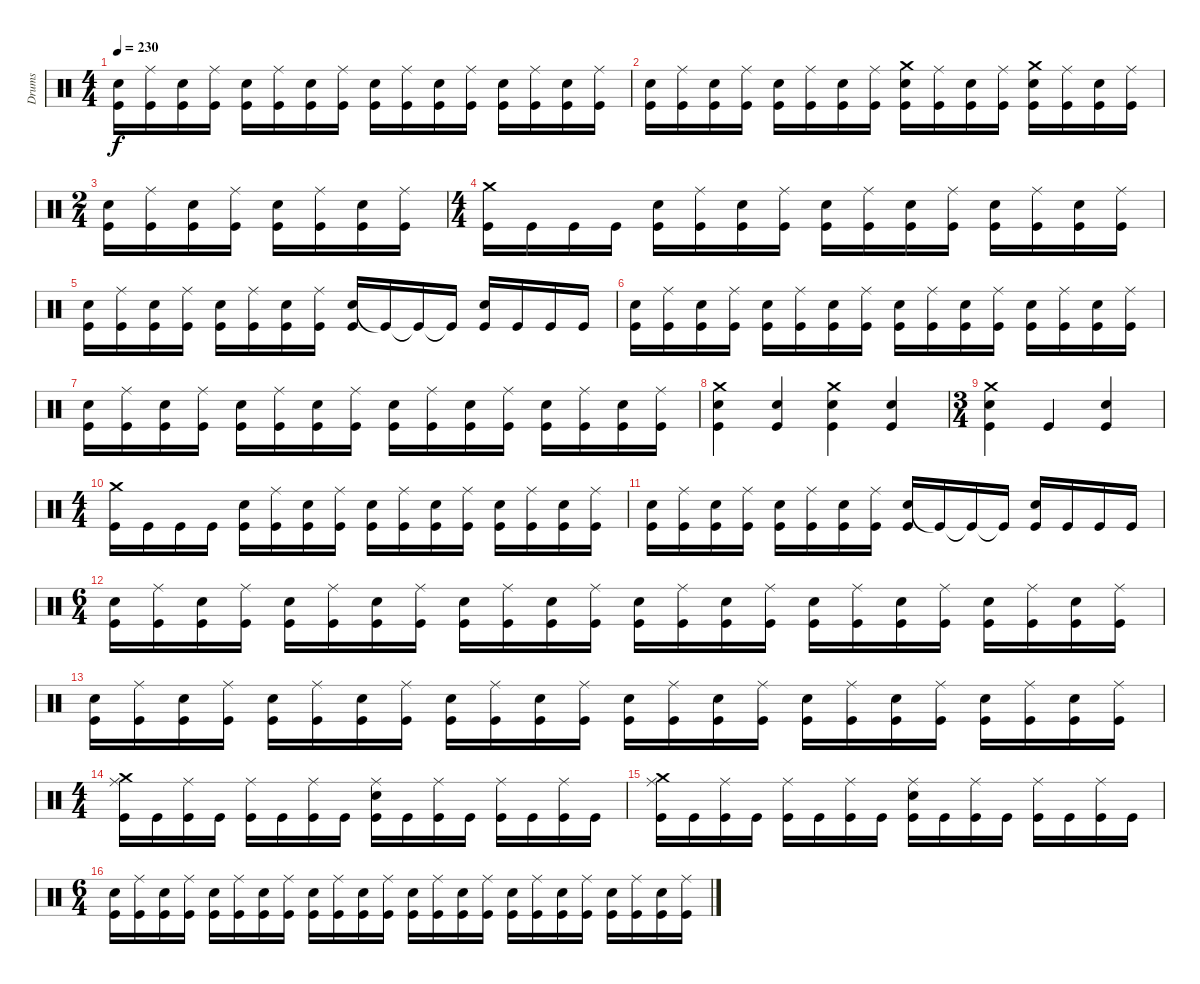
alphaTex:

\track ("Drums" "Drums") {instrument percussion}
\staff {score}
\articulation defaults
\ts (4 4)
\tempo 230
\clef neutral
\ks c
("Electric Snare (hit)" "Kick (hit)").16{dy f} ("Ride (middle)" "Kick (hit)").16 ("Electric Snare (hit)" "Kick (hit)").16 ("Ride (middle)" "Kick (hit)").16 ("Electric Snare (hit)" "Kick (hit)").16 ("Ride (middle)" "Kick (hit)").16 ("Electric Snare (hit)" "Kick (hit)").16 ("Ride (middle)" "Kick (hit)").16 ("Electric Snare (hit)" "Kick (hit)").16 ("Ride (middle)" "Kick (hit)").16 ("Electric Snare (hit)" "Kick (hit)").16 ("Ride (middle)" "Kick (hit)").16 ("Electric Snare (hit)" "Kick (hit)").16 ("Ride (middle)" "Kick (hit)").16 ("Electric Snare (hit)" "Kick (hit)").16 ("Ride (middle)" "Kick (hit)").16 |
("Electric Snare (hit)" "Kick (hit)").16 ("Ride (middle)" "Kick (hit)").16 ("Electric Snare (hit)" "Kick (hit)").16 ("Ride (middle)" "Kick (hit)").16 ("Electric Snare (hit)" "Kick (hit)").16 ("Ride (middle)" "Kick (hit)").16 ("Electric Snare (hit)" "Kick (hit)").16 ("Ride (middle)" "Kick (hit)").16 ("Crash medium (hit)" "Electric Snare (hit)" "Kick (hit)").16 ("Ride (middle)" "Kick (hit)").16 ("Electric Snare (hit)" "Kick (hit)").16 ("Ride (middle)" "Kick (hit)").16 ("Crash medium (hit)" "Electric Snare (hit)" "Kick (hit)").16 ("Ride (middle)" "Kick (hit)").16 ("Electric Snare (hit)" "Kick (hit)").16 ("Ride (middle)" "Kick (hit)").16 |
\ts (2 4)
("Electric Snare (hit)" "Kick (hit)").16 ("Ride (middle)" "Kick (hit)").16 ("Electric Snare (hit)" "Kick (hit)").16 ("Ride (middle)" "Kick (hit)").16 ("Electric Snare (hit)" "Kick (hit)").16 ("Ride (middle)" "Kick (hit)").16 ("Electric Snare (hit)" "Kick (hit)").16 ("Ride (middle)" "Kick (hit)").16 |
\ts (4 4)
("Crash medium (hit)" "Kick (hit)").16 "Kick (hit)".16 "Kick (hit)".16 "Kick (hit)".16 ("Electric Snare (hit)" "Kick (hit)").16 ("Ride (middle)" "Kick (hit)").16 ("Electric Snare (hit)" "Kick (hit)").16 ("Ride (middle)" "Kick (hit)").16 ("Electric Snare (hit)" "Kick (hit)").16 ("Ride (middle)" "Kick (hit)").16 ("Electric Snare (hit)" "Kick (hit)").16 ("Ride (middle)" "Kick (hit)").16 ("Electric Snare (hit)" "Kick (hit)").16 ("Ride (middle)" "Kick (hit)").16 ("Electric Snare (hit)" "Kick (hit)").16 ("Ride (middle)" "Kick (hit)").16 |
("Electric Snare (hit)" "Kick (hit)").16 ("Ride (middle)" "Kick (hit)").16 ("Electric Snare (hit)" "Kick (hit)").16 ("Ride (middle)" "Kick (hit)").16 ("Electric Snare (hit)" "Kick (hit)").16 ("Ride (middle)" "Kick (hit)").16 ("Electric Snare (hit)" "Kick (hit)").16 ("Ride (middle)" "Kick (hit)").16 ("Electric Snare (hit)" "Kick (hit)").16 "Kick (hit)"{t}.16 "Kick (hit)"{t}.16 "Kick (hit)"{t}.16 ("Electric Snare (hit)" "Kick (hit)").16 "Kick (hit)".16 "Kick (hit)".16 "Kick (hit)".16 |
("Electric Snare (hit)" "Kick (hit)").16 ("Ride (middle)" "Kick (hit)").16 ("Electric Snare (hit)" "Kick (hit)").16 ("Ride (middle)" "Kick (hit)").16 ("Electric Snare (hit)" "Kick (hit)").16 ("Ride (middle)" "Kick (hit)").16 ("Electric Snare (hit)" "Kick (hit)").16 ("Ride (middle)" "Kick (hit)").16 ("Electric Snare (hit)" "Kick (hit)").16 ("Ride (middle)" "Kick (hit)").16 ("Electric Snare (hit)" "Kick (hit)").16 ("Ride (middle)" "Kick (hit)").16 ("Electric Snare (hit)" "Kick (hit)").16 ("Ride (middle)" "Kick (hit)").16 ("Electric Snare (hit)" "Kick (hit)").16 ("Ride (middle)" "Kick (hit)").16 |
("Electric Snare (hit)" "Kick (hit)").16 ("Ride (middle)" "Kick (hit)").16 ("Electric Snare (hit)" "Kick (hit)").16 ("Ride (middle)" "Kick (hit)").16 ("Electric Snare (hit)" "Kick (hit)").16 ("Ride (middle)" "Kick (hit)").16 ("Electric Snare (hit)" "Kick (hit)").16 ("Ride (middle)" "Kick (hit)").16 ("Electric Snare (hit)" "Kick (hit)").16 ("Ride (middle)" "Kick (hit)").16 ("Electric Snare (hit)" "Kick (hit)").16 ("Ride (middle)" "Kick (hit)").16 ("Electric Snare (hit)" "Kick (hit)").16 ("Ride (middle)" "Kick (hit)").16 ("Electric Snare (hit)" "Kick (hit)").16 ("Ride (middle)" "Kick (hit)").16 |
("Crash medium (hit)" "Electric Snare (hit)" "Kick (hit)").4 ("Electric Snare (hit)" "Kick (hit)").4 ("Crash medium (hit)" "Electric Snare (hit)" "Kick (hit)").4 ("Electric Snare (hit)" "Kick (hit)").4 |
\ts (3 4)
("Crash medium (hit)" "Electric Snare (hit)" "Kick (hit)").4 "Kick (hit)".4 ("Electric Snare (hit)" "Kick (hit)").4 |
\ts (4 4)
("Crash medium (hit)" "Kick (hit)").16 "Kick (hit)".16 "Kick (hit)".16 "Kick (hit)".16 ("Electric Snare (hit)" "Kick (hit)").16 ("Ride (middle)" "Kick (hit)").16 ("Electric Snare (hit)" "Kick (hit)").16 ("Ride (middle)" "Kick (hit)").16 ("Electric Snare (hit)" "Kick (hit)").16 ("Ride (middle)" "Kick (hit)").16 ("Electric Snare (hit)" "Kick (hit)").16 ("Ride (middle)" "Kick (hit)").16 ("Electric Snare (hit)" "Kick (hit)").16 ("Ride (middle)" "Kick (hit)").16 ("Electric Snare (hit)" "Kick (hit)").16 ("Ride (middle)" "Kick (hit)").16 |
("Electric Snare (hit)" "Kick (hit)").16 ("Ride (middle)" "Kick (hit)").16 ("Electric Snare (hit)" "Kick (hit)").16 ("Ride (middle)" "Kick (hit)").16 ("Electric Snare (hit)" "Kick (hit)").16 ("Ride (middle)" "Kick (hit)").16 ("Electric Snare (hit)" "Kick (hit)").16 ("Ride (middle)" "Kick (hit)").16 ("Electric Snare (hit)" "Kick (hit)").16 "Kick (hit)"{t}.16 "Kick (hit)"{t}.16 "Kick (hit)"{t}.16 ("Electric Snare (hit)" "Kick (hit)").16 "Kick (hit)".16 "Kick (hit)".16 "Kick (hit)".16 |
\ts (6 4)
("Electric Snare (hit)" "Kick (hit)").16 ("Ride (middle)" "Kick (hit)").16 ("Electric Snare (hit)" "Kick (hit)").16 ("Ride (middle)" "Kick (hit)").16 ("Electric Snare (hit)" "Kick (hit)").16 ("Ride (middle)" "Kick (hit)").16 ("Electric Snare (hit)" "Kick (hit)").16 ("Ride (middle)" "Kick (hit)").16 ("Electric Snare (hit)" "Kick (hit)").16 ("Ride (middle)" "Kick (hit)").16 ("Electric Snare (hit)" "Kick (hit)").16 ("Ride (middle)" "Kick (hit)").16 ("Electric Snare (hit)" "Kick (hit)").16 ("Ride (middle)" "Kick (hit)").16 ("Electric Snare (hit)" "Kick (hit)").16 ("Ride (middle)" "Kick (hit)").16 ("Electric Snare (hit)" "Kick (hit)").16 ("Ride (middle)" "Kick (hit)").16 ("Electric Snare (hit)" "Kick (hit)").16 ("Ride (middle)" "Kick (hit)").16 ("Electric Snare (hit)" "Kick (hit)").16 ("Ride (middle)" "Kick (hit)").16 ("Electric Snare (hit)" "Kick (hit)").16 ("Ride (middle)" "Kick (hit)").16 |
("Electric Snare (hit)" "Kick (hit)").16 ("Ride (middle)" "Kick (hit)").16 ("Electric Snare (hit)" "Kick (hit)").16 ("Ride (middle)" "Kick (hit)").16 ("Electric Snare (hit)" "Kick (hit)").16 ("Ride (middle)" "Kick (hit)").16 ("Electric Snare (hit)" "Kick (hit)").16 ("Ride (middle)" "Kick (hit)").16 ("Electric Snare (hit)" "Kick (hit)").16 ("Ride (middle)" "Kick (hit)").16 ("Electric Snare (hit)" "Kick (hit)").16 ("Ride (middle)" "Kick (hit)").16 ("Electric Snare (hit)" "Kick (hit)").16 ("Ride (middle)" "Kick (hit)").16 ("Electric Snare (hit)" "Kick (hit)").16 ("Ride (middle)" "Kick (hit)").16 ("Electric Snare (hit)" "Kick (hit)").16 ("Ride (middle)" "Kick (hit)").16 ("Electric Snare (hit)" "Kick (hit)").16 ("Ride (middle)" "Kick (hit)").16 ("Electric Snare (hit)" "Kick (hit)").16 ("Ride (middle)" "Kick (hit)").16 ("Electric Snare (hit)" "Kick (hit)").16 ("Ride (middle)" "Kick (hit)").16 |
\ts (4 4)
("Ride (middle)" "Crash medium (hit)" "Kick (hit)").16 "Kick (hit)".16 ("Ride (middle)" "Kick (hit)").16 "Kick (hit)".16 ("Ride (middle)" "Kick (hit)").16 "Kick (hit)".16 ("Ride (middle)" "Kick (hit)").16 "Kick (hit)".16 ("Ride (middle)" "Electric Snare (hit)" "Kick (hit)").16 "Kick (hit)".16 ("Ride (middle)" "Kick (hit)").16 "Kick (hit)".16 ("Ride (middle)" "Kick (hit)").16 "Kick (hit)".16 ("Ride (middle)" "Kick (hit)").16 "Kick (hit)".16 |
("Ride (middle)" "Crash medium (hit)" "Kick (hit)").16 "Kick (hit)".16 ("Ride (middle)" "Kick (hit)").16 "Kick (hit)".16 ("Ride (middle)" "Kick (hit)").16 "Kick (hit)".16 ("Ride (middle)" "Kick (hit)").16 "Kick (hit)".16 ("Ride (middle)" "Electric Snare (hit)" "Kick (hit)").16 "Kick (hit)".16 ("Ride (middle)" "Kick (hit)").16 "Kick (hit)".16 ("Ride (middle)" "Kick (hit)").16 "Kick (hit)".16 ("Ride (middle)" "Kick (hit)").16 "Kick (hit)".16 |
\ts (6 4)
("Electric Snare (hit)" "Kick (hit)").16 ("Ride (middle)" "Kick (hit)").16 ("Electric Snare (hit)" "Kick (hit)").16 ("Ride (middle)" "Kick (hit)").16 ("Electric Snare (hit)" "Kick (hit)").16 ("Ride (middle)" "Kick (hit)").16 ("Electric Snare (hit)" "Kick (hit)").16 ("Ride (middle)" "Kick (hit)").16 ("Electric Snare (hit)" "Kick (hit)").16 ("Ride (middle)" "Kick (hit)").16 ("Electric Snare (hit)" "Kick (hit)").16 ("Ride (middle)" "Kick (hit)").16 ("Electric Snare (hit)" "Kick (hit)").16 ("Ride (middle)" "Kick (hit)").16 ("Electric Snare (hit)" "Kick (hit)").16 ("Ride (middle)" "Kick (hit)").16 ("Electric Snare (hit)" "Kick (hit)").16 ("Ride (middle)" "Kick (hit)").16 ("Electric Snare (hit)" "Kick (hit)").16 ("Ride (middle)" "Kick (hit)").16 ("Electric Snare (hit)" "Kick (hit)").16 ("Ride (middle)" "Kick (hit)").16 ("Electric Snare (hit)" "Kick (hit)").16 ("Ride (middle)" "Kick (hit)").16
